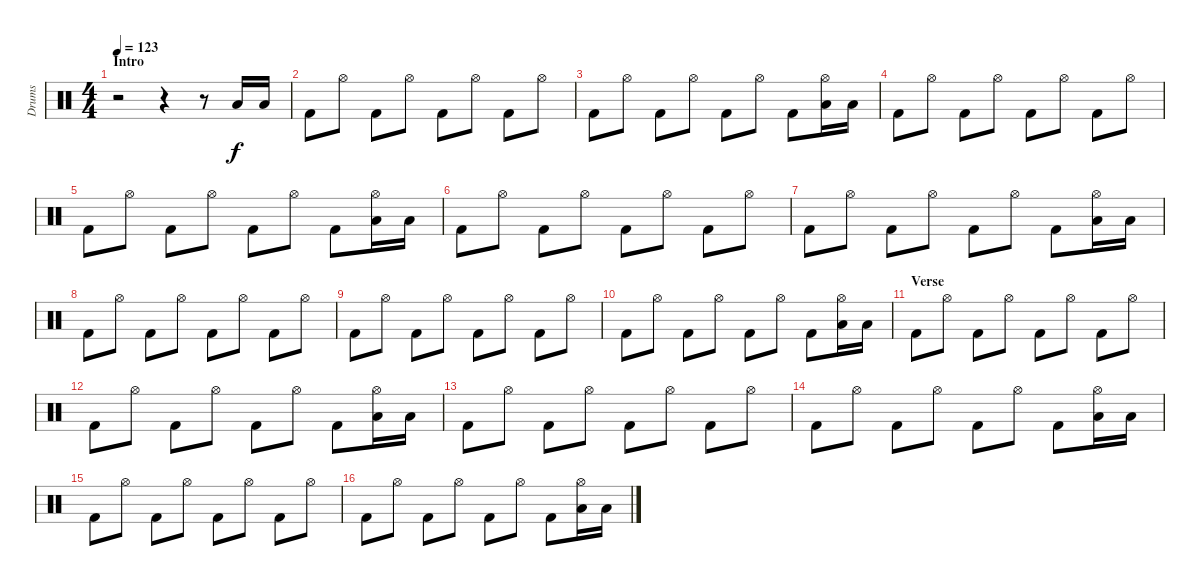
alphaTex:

\track ("Drums" "Drums") {instrument percussion}
\staff {score}
\articulation defaults
\ts (4 4)
\section ("" "Intro")
\tempo 123
\clef neutral
\ks c
r.2{dy f} r.4 r.8 "Low Tom (hit)".16 "Low Tom (hit)".16 |
"Kick (hit) 2".8 "Hi-Hat (open)".8 "Kick (hit) 2".8 "Hi-Hat (open)".8 "Kick (hit) 2".8 "Hi-Hat (open)".8 "Kick (hit) 2".8 "Hi-Hat (open)".8 |
"Kick (hit) 2".8 "Hi-Hat (open)".8 "Kick (hit) 2".8 "Hi-Hat (open)".8 "Kick (hit) 2".8 "Hi-Hat (open)".8 "Kick (hit) 2".8 ("Hi-Hat (open)" "Low Tom (hit)").16 "Low Tom (hit)".16 |
"Kick (hit) 2".8 "Hi-Hat (open)".8 "Kick (hit) 2".8 "Hi-Hat (open)".8 "Kick (hit) 2".8 "Hi-Hat (open)".8 "Kick (hit) 2".8 "Hi-Hat (open)".8 |
"Kick (hit) 2".8 "Hi-Hat (open)".8 "Kick (hit) 2".8 "Hi-Hat (open)".8 "Kick (hit) 2".8 "Hi-Hat (open)".8 "Kick (hit) 2".8 ("Hi-Hat (open)" "Low Tom (hit)").16 "Low Tom (hit)".16 |
"Kick (hit) 2".8 "Hi-Hat (open)".8 "Kick (hit) 2".8 "Hi-Hat (open)".8 "Kick (hit) 2".8 "Hi-Hat (open)".8 "Kick (hit) 2".8 "Hi-Hat (open)".8 |
"Kick (hit) 2".8 "Hi-Hat (open)".8 "Kick (hit) 2".8 "Hi-Hat (open)".8 "Kick (hit) 2".8 "Hi-Hat (open)".8 "Kick (hit) 2".8 ("Hi-Hat (open)" "Low Tom (hit)").16 "Low Tom (hit)".16 |
"Kick (hit) 2".8 "Hi-Hat (open)".8 "Kick (hit) 2".8 "Hi-Hat (open)".8 "Kick (hit) 2".8 "Hi-Hat (open)".8 "Kick (hit) 2".8 "Hi-Hat (open)".8 |
"Kick (hit) 2".8 "Hi-Hat (open)".8 "Kick (hit) 2".8 "Hi-Hat (open)".8 "Kick (hit) 2".8 "Hi-Hat (open)".8 "Kick (hit) 2".8 "Hi-Hat (open)".8 |
"Kick (hit) 2".8 "Hi-Hat (open)".8 "Kick (hit) 2".8 "Hi-Hat (open)".8 "Kick (hit) 2".8 "Hi-Hat (open)".8 "Kick (hit) 2".8 ("Hi-Hat (open)" "Low Tom (hit)").16 "Low Tom (hit)".16 |
\section ("" "Verse")
"Kick (hit) 2".8 "Hi-Hat (open)".8 "Kick (hit) 2".8 "Hi-Hat (open)".8 "Kick (hit) 2".8 "Hi-Hat (open)".8 "Kick (hit) 2".8 "Hi-Hat (open)".8 |
"Kick (hit) 2".8 "Hi-Hat (open)".8 "Kick (hit) 2".8 "Hi-Hat (open)".8 "Kick (hit) 2".8 "Hi-Hat (open)".8 "Kick (hit) 2".8 ("Hi-Hat (open)" "Low Tom (hit)").16 "Low Tom (hit)".16 |
"Kick (hit) 2".8 "Hi-Hat (open)".8 "Kick (hit) 2".8 "Hi-Hat (open)".8 "Kick (hit) 2".8 "Hi-Hat (open)".8 "Kick (hit) 2".8 "Hi-Hat (open)".8 |
"Kick (hit) 2".8 "Hi-Hat (open)".8 "Kick (hit) 2".8 "Hi-Hat (open)".8 "Kick (hit) 2".8 "Hi-Hat (open)".8 "Kick (hit) 2".8 ("Hi-Hat (open)" "Low Tom (hit)").16 "Low Tom (hit)".16 |
"Kick (hit) 2".8 "Hi-Hat (open)".8 "Kick (hit) 2".8 "Hi-Hat (open)".8 "Kick (hit) 2".8 "Hi-Hat (open)".8 "Kick (hit) 2".8 "Hi-Hat (open)".8 |
"Kick (hit) 2".8 "Hi-Hat (open)".8 "Kick (hit) 2".8 "Hi-Hat (open)".8 "Kick (hit) 2".8 "Hi-Hat (open)".8 "Kick (hit) 2".8 ("Hi-Hat (open)" "Low Tom (hit)").16 "Low Tom (hit)".16
